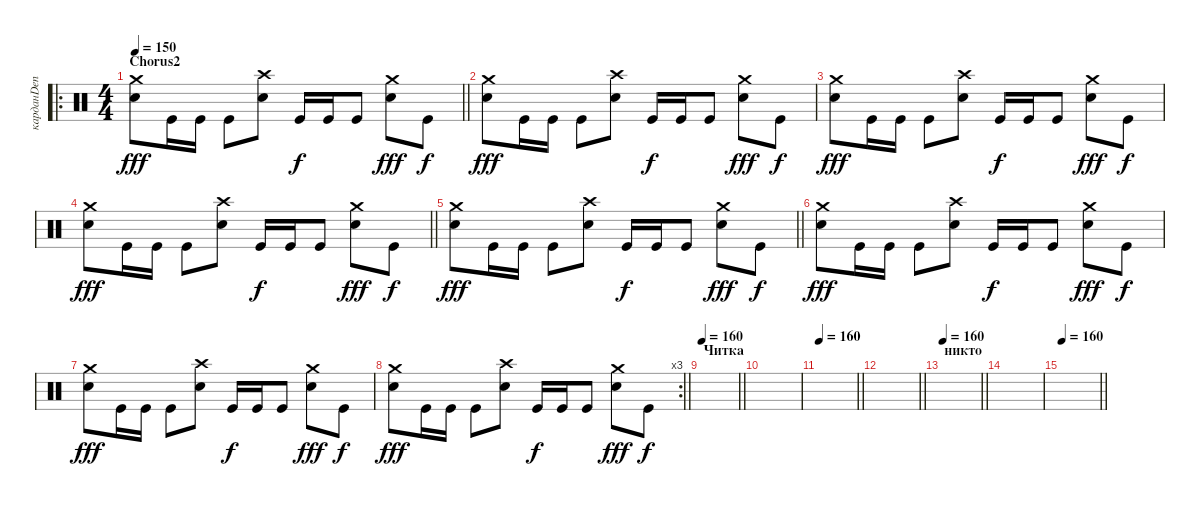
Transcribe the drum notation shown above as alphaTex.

\track ("карданDen" "карданDen") {instrument percussion}
\staff {score}
\articulation defaults
\ro
\ts (4 4)
\section ("" "Chorus2")
\tempo 150
\clef neutral
\barLineRight lightlight
\ks c
("Crash medium (hit)" "Electric Snare (hit)").8{dy fff} "Kick (hit)".16 "Kick (hit)".16 "Kick (hit)".8 ("Crash high (hit)" "Electric Snare (hit)").8 "Kick (hit)".16{dy f} "Kick (hit)".16 "Kick (hit)".8 ("Crash medium (hit)" "Electric Snare (hit)").8{dy fff} "Kick (hit)".8{dy f} |
("Crash medium (hit)" "Electric Snare (hit)").8{dy fff} "Kick (hit)".16 "Kick (hit)".16 "Kick (hit)".8 ("Crash high (hit)" "Electric Snare (hit)").8 "Kick (hit)".16{dy f} "Kick (hit)".16 "Kick (hit)".8 ("Crash medium (hit)" "Electric Snare (hit)").8{dy fff} "Kick (hit)".8{dy f} |
("Crash medium (hit)" "Electric Snare (hit)").8{dy fff} "Kick (hit)".16 "Kick (hit)".16 "Kick (hit)".8 ("Crash high (hit)" "Electric Snare (hit)").8 "Kick (hit)".16{dy f} "Kick (hit)".16 "Kick (hit)".8 ("Crash medium (hit)" "Electric Snare (hit)").8{dy fff} "Kick (hit)".8{dy f} |
\barLineRight lightlight
("Crash medium (hit)" "Electric Snare (hit)").8{dy fff} "Kick (hit)".16 "Kick (hit)".16 "Kick (hit)".8 ("Crash high (hit)" "Electric Snare (hit)").8 "Kick (hit)".16{dy f} "Kick (hit)".16 "Kick (hit)".8 ("Crash medium (hit)" "Electric Snare (hit)").8{dy fff} "Kick (hit)".8{dy f} |
\barLineRight lightlight
("Crash medium (hit)" "Electric Snare (hit)").8{dy fff} "Kick (hit)".16 "Kick (hit)".16 "Kick (hit)".8 ("Crash high (hit)" "Electric Snare (hit)").8 "Kick (hit)".16{dy f} "Kick (hit)".16 "Kick (hit)".8 ("Crash medium (hit)" "Electric Snare (hit)").8{dy fff} "Kick (hit)".8{dy f} |
("Crash medium (hit)" "Electric Snare (hit)").8{dy fff} "Kick (hit)".16 "Kick (hit)".16 "Kick (hit)".8 ("Crash high (hit)" "Electric Snare (hit)").8 "Kick (hit)".16{dy f} "Kick (hit)".16 "Kick (hit)".8 ("Crash medium (hit)" "Electric Snare (hit)").8{dy fff} "Kick (hit)".8{dy f} |
("Crash medium (hit)" "Electric Snare (hit)").8{dy fff} "Kick (hit)".16 "Kick (hit)".16 "Kick (hit)".8 ("Crash high (hit)" "Electric Snare (hit)").8 "Kick (hit)".16{dy f} "Kick (hit)".16 "Kick (hit)".8 ("Crash medium (hit)" "Electric Snare (hit)").8{dy fff} "Kick (hit)".8{dy f} |
\rc 3
\barLineRight lightlight
("Crash medium (hit)" "Electric Snare (hit)").8{dy fff} "Kick (hit)".16 "Kick (hit)".16 "Kick (hit)".8 ("Crash high (hit)" "Electric Snare (hit)").8 "Kick (hit)".16{dy f} "Kick (hit)".16 "Kick (hit)".8 ("Crash medium (hit)" "Electric Snare (hit)").8{dy fff} "Kick (hit)".8{dy f} |
\section ("" "Читка")
\tempo 160
\barLineRight lightlight
|
|
\tempo 160
\barLineRight lightlight
|
\barLineRight lightlight
|
\section ("" "никто")
\tempo 160
\barLineRight lightlight
|
|
\tempo 160
\barLineRight lightlight
